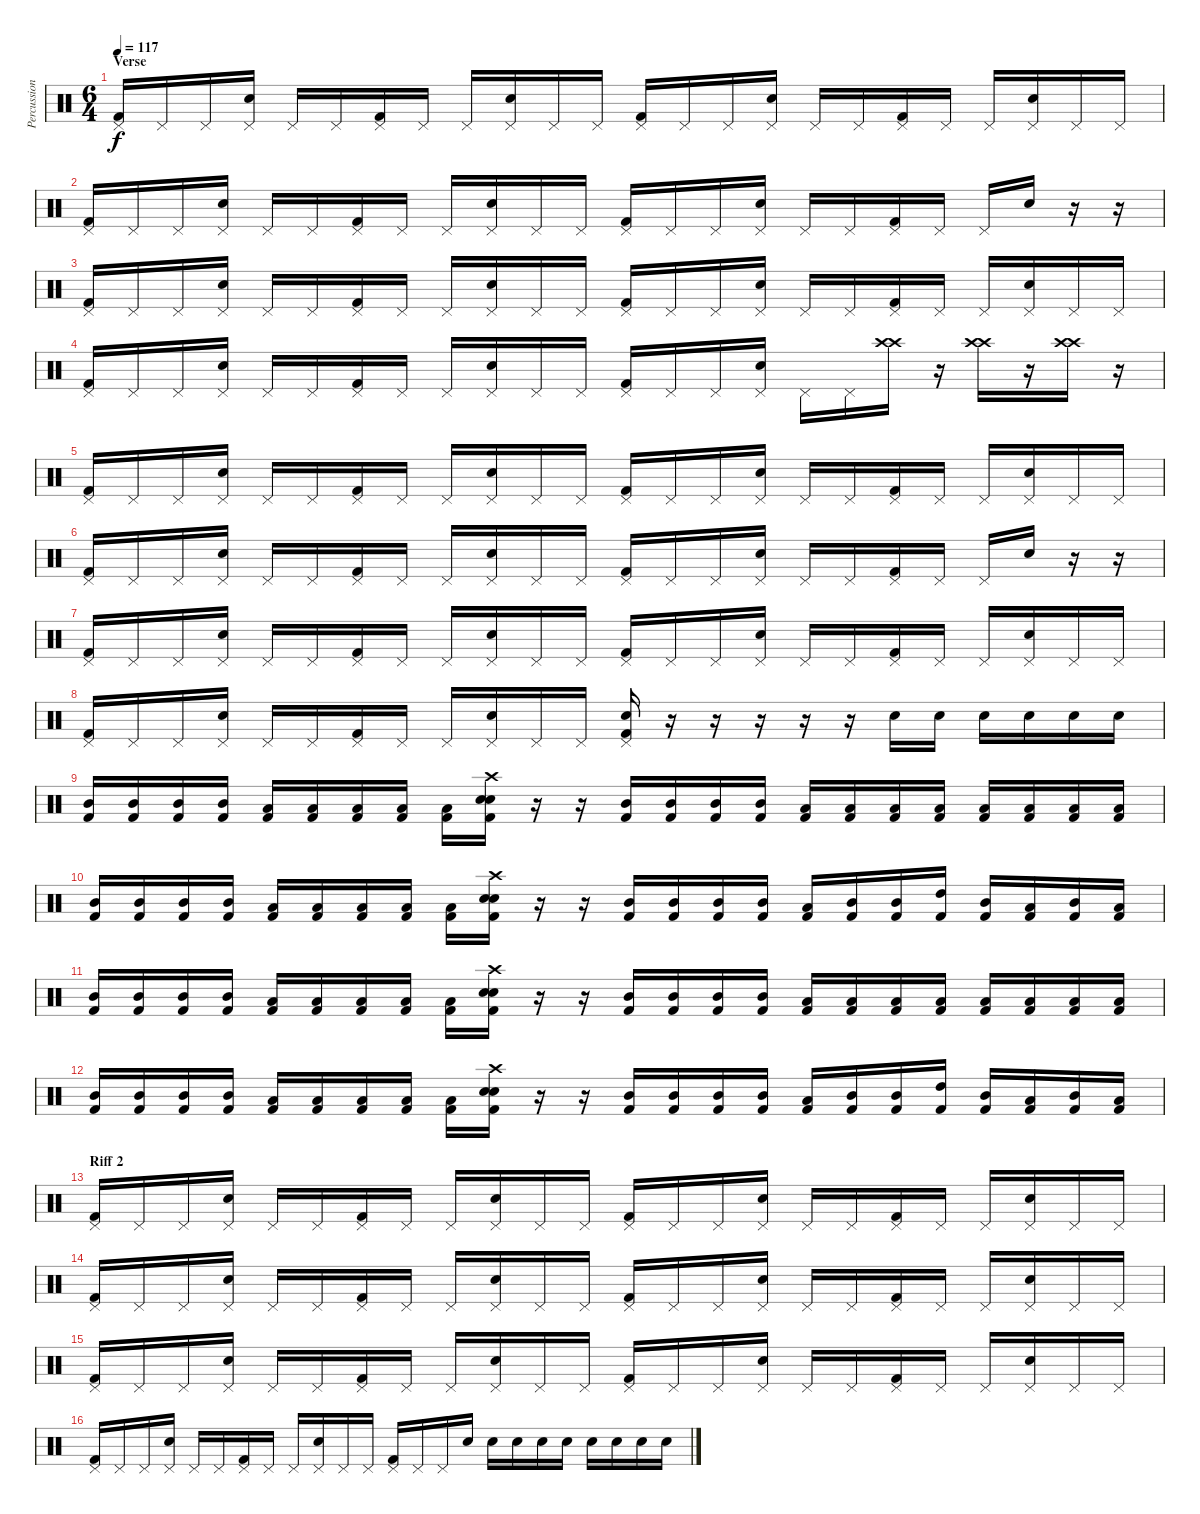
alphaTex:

\track ("Percussions" "Percussion") {instrument percussion}
\staff {score}
\articulation defaults
\ts (6 4)
\section ("" "Verse")
\tempo 117
\clef neutral
\ks c
("Pedal Hi-Hat (hit)" "Kick (hit) 2").16{dy f} "Pedal Hi-Hat (hit)".16 "Pedal Hi-Hat (hit)".16 ("Pedal Hi-Hat (hit)" "Electric Snare (hit)").16 "Pedal Hi-Hat (hit)".16 "Pedal Hi-Hat (hit)".16 ("Pedal Hi-Hat (hit)" "Kick (hit) 2").16 "Pedal Hi-Hat (hit)".16 "Pedal Hi-Hat (hit)".16 ("Pedal Hi-Hat (hit)" "Electric Snare (hit)").16 "Pedal Hi-Hat (hit)".16 "Pedal Hi-Hat (hit)".16 ("Pedal Hi-Hat (hit)" "Kick (hit) 2").16 "Pedal Hi-Hat (hit)".16 "Pedal Hi-Hat (hit)".16 ("Pedal Hi-Hat (hit)" "Electric Snare (hit)").16 "Pedal Hi-Hat (hit)".16 "Pedal Hi-Hat (hit)".16 ("Pedal Hi-Hat (hit)" "Kick (hit) 2").16 "Pedal Hi-Hat (hit)".16 "Pedal Hi-Hat (hit)".16 ("Pedal Hi-Hat (hit)" "Electric Snare (hit)").16 "Pedal Hi-Hat (hit)".16 "Pedal Hi-Hat (hit)".16 |
("Pedal Hi-Hat (hit)" "Kick (hit) 2").16 "Pedal Hi-Hat (hit)".16 "Pedal Hi-Hat (hit)".16 ("Pedal Hi-Hat (hit)" "Electric Snare (hit)").16 "Pedal Hi-Hat (hit)".16 "Pedal Hi-Hat (hit)".16 ("Pedal Hi-Hat (hit)" "Kick (hit) 2").16 "Pedal Hi-Hat (hit)".16 "Pedal Hi-Hat (hit)".16 ("Pedal Hi-Hat (hit)" "Electric Snare (hit)").16 "Pedal Hi-Hat (hit)".16 "Pedal Hi-Hat (hit)".16 ("Pedal Hi-Hat (hit)" "Kick (hit) 2").16 "Pedal Hi-Hat (hit)".16 "Pedal Hi-Hat (hit)".16 ("Pedal Hi-Hat (hit)" "Electric Snare (hit)").16 "Pedal Hi-Hat (hit)".16 "Pedal Hi-Hat (hit)".16 ("Pedal Hi-Hat (hit)" "Kick (hit) 2").16 "Pedal Hi-Hat (hit)".16 "Pedal Hi-Hat (hit)".16 "Electric Snare (hit)".16 r.16 r.16 |
("Pedal Hi-Hat (hit)" "Kick (hit) 2").16 "Pedal Hi-Hat (hit)".16 "Pedal Hi-Hat (hit)".16 ("Pedal Hi-Hat (hit)" "Electric Snare (hit)").16 "Pedal Hi-Hat (hit)".16 "Pedal Hi-Hat (hit)".16 ("Pedal Hi-Hat (hit)" "Kick (hit) 2").16 "Pedal Hi-Hat (hit)".16 "Pedal Hi-Hat (hit)".16 ("Pedal Hi-Hat (hit)" "Electric Snare (hit)").16 "Pedal Hi-Hat (hit)".16 "Pedal Hi-Hat (hit)".16 ("Pedal Hi-Hat (hit)" "Kick (hit) 2").16 "Pedal Hi-Hat (hit)".16 "Pedal Hi-Hat (hit)".16 ("Pedal Hi-Hat (hit)" "Electric Snare (hit)").16 "Pedal Hi-Hat (hit)".16 "Pedal Hi-Hat (hit)".16 ("Pedal Hi-Hat (hit)" "Kick (hit) 2").16 "Pedal Hi-Hat (hit)".16 "Pedal Hi-Hat (hit)".16 ("Pedal Hi-Hat (hit)" "Electric Snare (hit)").16 "Pedal Hi-Hat (hit)".16 "Pedal Hi-Hat (hit)".16 |
("Pedal Hi-Hat (hit)" "Kick (hit) 2").16 "Pedal Hi-Hat (hit)".16 "Pedal Hi-Hat (hit)".16 ("Pedal Hi-Hat (hit)" "Electric Snare (hit)").16 "Pedal Hi-Hat (hit)".16 "Pedal Hi-Hat (hit)".16 ("Pedal Hi-Hat (hit)" "Kick (hit) 2").16 "Pedal Hi-Hat (hit)".16 "Pedal Hi-Hat (hit)".16 ("Pedal Hi-Hat (hit)" "Electric Snare (hit)").16 "Pedal Hi-Hat (hit)".16 "Pedal Hi-Hat (hit)".16 ("Pedal Hi-Hat (hit)" "Kick (hit) 2").16 "Pedal Hi-Hat (hit)".16 "Pedal Hi-Hat (hit)".16 ("Pedal Hi-Hat (hit)" "Electric Snare (hit)").16 "Pedal Hi-Hat (hit)".16 "Pedal Hi-Hat (hit)".16 ("Crash high (hit)" "Crash high (hit)").16 r.16 ("Crash high (hit)" "Crash high (hit)").16 r.16 ("Crash high (hit)" "Crash high (hit)").16 r.16 |
("Pedal Hi-Hat (hit)" "Kick (hit) 2").16 "Pedal Hi-Hat (hit)".16 "Pedal Hi-Hat (hit)".16 ("Pedal Hi-Hat (hit)" "Electric Snare (hit)").16 "Pedal Hi-Hat (hit)".16 "Pedal Hi-Hat (hit)".16 ("Pedal Hi-Hat (hit)" "Kick (hit) 2").16 "Pedal Hi-Hat (hit)".16 "Pedal Hi-Hat (hit)".16 ("Pedal Hi-Hat (hit)" "Electric Snare (hit)").16 "Pedal Hi-Hat (hit)".16 "Pedal Hi-Hat (hit)".16 ("Pedal Hi-Hat (hit)" "Kick (hit) 2").16 "Pedal Hi-Hat (hit)".16 "Pedal Hi-Hat (hit)".16 ("Pedal Hi-Hat (hit)" "Electric Snare (hit)").16 "Pedal Hi-Hat (hit)".16 "Pedal Hi-Hat (hit)".16 ("Pedal Hi-Hat (hit)" "Kick (hit) 2").16 "Pedal Hi-Hat (hit)".16 "Pedal Hi-Hat (hit)".16 ("Pedal Hi-Hat (hit)" "Electric Snare (hit)").16 "Pedal Hi-Hat (hit)".16 "Pedal Hi-Hat (hit)".16 |
("Pedal Hi-Hat (hit)" "Kick (hit) 2").16 "Pedal Hi-Hat (hit)".16 "Pedal Hi-Hat (hit)".16 ("Pedal Hi-Hat (hit)" "Electric Snare (hit)").16 "Pedal Hi-Hat (hit)".16 "Pedal Hi-Hat (hit)".16 ("Pedal Hi-Hat (hit)" "Kick (hit) 2").16 "Pedal Hi-Hat (hit)".16 "Pedal Hi-Hat (hit)".16 ("Pedal Hi-Hat (hit)" "Electric Snare (hit)").16 "Pedal Hi-Hat (hit)".16 "Pedal Hi-Hat (hit)".16 ("Pedal Hi-Hat (hit)" "Kick (hit) 2").16 "Pedal Hi-Hat (hit)".16 "Pedal Hi-Hat (hit)".16 ("Pedal Hi-Hat (hit)" "Electric Snare (hit)").16 "Pedal Hi-Hat (hit)".16 "Pedal Hi-Hat (hit)".16 ("Pedal Hi-Hat (hit)" "Kick (hit) 2").16 "Pedal Hi-Hat (hit)".16 "Pedal Hi-Hat (hit)".16 "Electric Snare (hit)".16 r.16 r.16 |
("Pedal Hi-Hat (hit)" "Kick (hit) 2").16 "Pedal Hi-Hat (hit)".16 "Pedal Hi-Hat (hit)".16 ("Pedal Hi-Hat (hit)" "Electric Snare (hit)").16 "Pedal Hi-Hat (hit)".16 "Pedal Hi-Hat (hit)".16 ("Pedal Hi-Hat (hit)" "Kick (hit) 2").16 "Pedal Hi-Hat (hit)".16 "Pedal Hi-Hat (hit)".16 ("Pedal Hi-Hat (hit)" "Electric Snare (hit)").16 "Pedal Hi-Hat (hit)".16 "Pedal Hi-Hat (hit)".16 ("Pedal Hi-Hat (hit)" "Kick (hit) 2").16 "Pedal Hi-Hat (hit)".16 "Pedal Hi-Hat (hit)".16 ("Pedal Hi-Hat (hit)" "Electric Snare (hit)").16 "Pedal Hi-Hat (hit)".16 "Pedal Hi-Hat (hit)".16 ("Pedal Hi-Hat (hit)" "Kick (hit) 2").16 "Pedal Hi-Hat (hit)".16 "Pedal Hi-Hat (hit)".16 ("Pedal Hi-Hat (hit)" "Electric Snare (hit)").16 "Pedal Hi-Hat (hit)".16 "Pedal Hi-Hat (hit)".16 |
("Pedal Hi-Hat (hit)" "Kick (hit) 2").16 "Pedal Hi-Hat (hit)".16 "Pedal Hi-Hat (hit)".16 ("Pedal Hi-Hat (hit)" "Electric Snare (hit)").16 "Pedal Hi-Hat (hit)".16 "Pedal Hi-Hat (hit)".16 ("Pedal Hi-Hat (hit)" "Kick (hit) 2").16 "Pedal Hi-Hat (hit)".16 "Pedal Hi-Hat (hit)".16 ("Pedal Hi-Hat (hit)" "Electric Snare (hit)").16 "Pedal Hi-Hat (hit)".16 "Pedal Hi-Hat (hit)".16 ("Pedal Hi-Hat (hit)" "Electric Snare (hit)" "Kick (hit) 2").16 r.16 r.16 r.16 r.16 r.16 "Electric Snare (hit)".16 "Electric Snare (hit)".16 "Electric Snare (hit)".16 "Electric Snare (hit)".16 "Electric Snare (hit)".16 "Electric Snare (hit)".16 |
("Mid Tom (hit)" "Kick (hit) 2").16 ("Mid Tom (hit)" "Kick (hit) 2").16 ("Mid Tom (hit)" "Kick (hit) 2").16 ("Mid Tom (hit)" "Kick (hit) 2").16 ("Low Tom (hit)" "Kick (hit) 2").16 ("Low Tom (hit)" "Kick (hit) 2").16 ("Low Tom (hit)" "Kick (hit) 2").16 ("Low Floor Tom (hit)" "Kick (hit) 2").16 ("Low Floor Tom (hit)" "Kick (hit) 2").16 ("Crash high (hit)" "Electric Snare (hit)" "Electric Snare (hit)" "Kick (hit) 2").16 r.16 r.16 ("Mid Tom (hit)" "Kick (hit) 2").16 ("Mid Tom (hit)" "Kick (hit) 2").16 ("Mid Tom (hit)" "Kick (hit) 2").16 ("Mid Tom (hit)" "Kick (hit) 2").16 ("Low Tom (hit)" "Kick (hit) 2").16 ("Low Tom (hit)" "Kick (hit) 2").16 ("Low Tom (hit)" "Kick (hit) 2").16 ("Low Floor Tom (hit)" "Kick (hit) 2").16 ("Low Floor Tom (hit)" "Kick (hit) 2").16 ("Low Floor Tom (hit)" "Kick (hit) 2").16 ("Low Floor Tom (hit)" "Kick (hit) 2").16 ("Low Floor Tom (hit)" "Kick (hit) 2").16 |
("Mid Tom (hit)" "Kick (hit) 2").16 ("Mid Tom (hit)" "Kick (hit) 2").16 ("Mid Tom (hit)" "Kick (hit) 2").16 ("Mid Tom (hit)" "Kick (hit) 2").16 ("Low Tom (hit)" "Kick (hit) 2").16 ("Low Tom (hit)" "Kick (hit) 2").16 ("Low Tom (hit)" "Kick (hit) 2").16 ("Low Floor Tom (hit)" "Kick (hit) 2").16 ("Low Floor Tom (hit)" "Kick (hit) 2").16 ("Crash high (hit)" "Electric Snare (hit)" "Electric Snare (hit)" "Kick (hit) 2").16 r.16 r.16 ("Mid Tom (hit)" "Kick (hit) 2").16 ("Mid Tom (hit)" "Kick (hit) 2").16 ("Mid Tom (hit)" "Kick (hit) 2").16 ("Mid Tom (hit)" "Kick (hit) 2").16 ("Low Tom (hit)" "Kick (hit) 2").16 ("Mid Tom (hit)" "Kick (hit) 2").16 ("Mid Tom (hit)" "Kick (hit) 2").16 ("High Tom (hit)" "Kick (hit) 2").16 ("Mid Tom (hit)" "Kick (hit) 2").16 ("Low Tom (hit)" "Kick (hit) 2").16 ("Mid Tom (hit)" "Kick (hit) 2").16 ("Low Tom (hit)" "Kick (hit) 2").16 |
("Mid Tom (hit)" "Kick (hit) 2").16 ("Mid Tom (hit)" "Kick (hit) 2").16 ("Mid Tom (hit)" "Kick (hit) 2").16 ("Mid Tom (hit)" "Kick (hit) 2").16 ("Low Tom (hit)" "Kick (hit) 2").16 ("Low Tom (hit)" "Kick (hit) 2").16 ("Low Tom (hit)" "Kick (hit) 2").16 ("Low Floor Tom (hit)" "Kick (hit) 2").16 ("Low Floor Tom (hit)" "Kick (hit) 2").16 ("Crash high (hit)" "Electric Snare (hit)" "Electric Snare (hit)" "Kick (hit) 2").16 r.16 r.16 ("Mid Tom (hit)" "Kick (hit) 2").16 ("Mid Tom (hit)" "Kick (hit) 2").16 ("Mid Tom (hit)" "Kick (hit) 2").16 ("Mid Tom (hit)" "Kick (hit) 2").16 ("Low Tom (hit)" "Kick (hit) 2").16 ("Low Tom (hit)" "Kick (hit) 2").16 ("Low Tom (hit)" "Kick (hit) 2").16 ("Low Floor Tom (hit)" "Kick (hit) 2").16 ("Low Floor Tom (hit)" "Kick (hit) 2").16 ("Low Floor Tom (hit)" "Kick (hit) 2").16 ("Low Floor Tom (hit)" "Kick (hit) 2").16 ("Low Floor Tom (hit)" "Kick (hit) 2").16 |
("Mid Tom (hit)" "Kick (hit) 2").16 ("Mid Tom (hit)" "Kick (hit) 2").16 ("Mid Tom (hit)" "Kick (hit) 2").16 ("Mid Tom (hit)" "Kick (hit) 2").16 ("Low Tom (hit)" "Kick (hit) 2").16 ("Low Tom (hit)" "Kick (hit) 2").16 ("Low Tom (hit)" "Kick (hit) 2").16 ("Low Floor Tom (hit)" "Kick (hit) 2").16 ("Low Floor Tom (hit)" "Kick (hit) 2").16 ("Crash high (hit)" "Electric Snare (hit)" "Electric Snare (hit)" "Kick (hit) 2").16 r.16 r.16 ("Mid Tom (hit)" "Kick (hit) 2").16 ("Mid Tom (hit)" "Kick (hit) 2").16 ("Mid Tom (hit)" "Kick (hit) 2").16 ("Mid Tom (hit)" "Kick (hit) 2").16 ("Low Tom (hit)" "Kick (hit) 2").16 ("Mid Tom (hit)" "Kick (hit) 2").16 ("Mid Tom (hit)" "Kick (hit) 2").16 ("High Tom (hit)" "Kick (hit) 2").16 ("Mid Tom (hit)" "Kick (hit) 2").16 ("Low Tom (hit)" "Kick (hit) 2").16 ("Mid Tom (hit)" "Kick (hit) 2").16 ("Low Tom (hit)" "Kick (hit) 2").16 |
\section ("" "Riff 2")
("Pedal Hi-Hat (hit)" "Kick (hit) 2").16 "Pedal Hi-Hat (hit)".16 "Pedal Hi-Hat (hit)".16 ("Pedal Hi-Hat (hit)" "Electric Snare (hit)").16 "Pedal Hi-Hat (hit)".16 "Pedal Hi-Hat (hit)".16 ("Pedal Hi-Hat (hit)" "Kick (hit) 2").16 "Pedal Hi-Hat (hit)".16 "Pedal Hi-Hat (hit)".16 ("Pedal Hi-Hat (hit)" "Electric Snare (hit)").16 "Pedal Hi-Hat (hit)".16 "Pedal Hi-Hat (hit)".16 ("Pedal Hi-Hat (hit)" "Kick (hit) 2").16 "Pedal Hi-Hat (hit)".16 "Pedal Hi-Hat (hit)".16 ("Pedal Hi-Hat (hit)" "Electric Snare (hit)").16 "Pedal Hi-Hat (hit)".16 "Pedal Hi-Hat (hit)".16 ("Pedal Hi-Hat (hit)" "Kick (hit) 2").16 "Pedal Hi-Hat (hit)".16 "Pedal Hi-Hat (hit)".16 ("Pedal Hi-Hat (hit)" "Electric Snare (hit)").16 "Pedal Hi-Hat (hit)".16 "Pedal Hi-Hat (hit)".16 |
("Pedal Hi-Hat (hit)" "Kick (hit) 2").16 "Pedal Hi-Hat (hit)".16 "Pedal Hi-Hat (hit)".16 ("Pedal Hi-Hat (hit)" "Electric Snare (hit)").16 "Pedal Hi-Hat (hit)".16 "Pedal Hi-Hat (hit)".16 ("Pedal Hi-Hat (hit)" "Kick (hit) 2").16 "Pedal Hi-Hat (hit)".16 "Pedal Hi-Hat (hit)".16 ("Pedal Hi-Hat (hit)" "Electric Snare (hit)").16 "Pedal Hi-Hat (hit)".16 "Pedal Hi-Hat (hit)".16 ("Pedal Hi-Hat (hit)" "Kick (hit) 2").16 "Pedal Hi-Hat (hit)".16 "Pedal Hi-Hat (hit)".16 ("Pedal Hi-Hat (hit)" "Electric Snare (hit)").16 "Pedal Hi-Hat (hit)".16 "Pedal Hi-Hat (hit)".16 ("Pedal Hi-Hat (hit)" "Kick (hit) 2").16 "Pedal Hi-Hat (hit)".16 "Pedal Hi-Hat (hit)".16 ("Pedal Hi-Hat (hit)" "Electric Snare (hit)").16 "Pedal Hi-Hat (hit)".16 "Pedal Hi-Hat (hit)".16 |
("Pedal Hi-Hat (hit)" "Kick (hit) 2").16 "Pedal Hi-Hat (hit)".16 "Pedal Hi-Hat (hit)".16 ("Pedal Hi-Hat (hit)" "Electric Snare (hit)").16 "Pedal Hi-Hat (hit)".16 "Pedal Hi-Hat (hit)".16 ("Pedal Hi-Hat (hit)" "Kick (hit) 2").16 "Pedal Hi-Hat (hit)".16 "Pedal Hi-Hat (hit)".16 ("Pedal Hi-Hat (hit)" "Electric Snare (hit)").16 "Pedal Hi-Hat (hit)".16 "Pedal Hi-Hat (hit)".16 ("Pedal Hi-Hat (hit)" "Kick (hit) 2").16 "Pedal Hi-Hat (hit)".16 "Pedal Hi-Hat (hit)".16 ("Pedal Hi-Hat (hit)" "Electric Snare (hit)").16 "Pedal Hi-Hat (hit)".16 "Pedal Hi-Hat (hit)".16 ("Pedal Hi-Hat (hit)" "Kick (hit) 2").16 "Pedal Hi-Hat (hit)".16 "Pedal Hi-Hat (hit)".16 ("Pedal Hi-Hat (hit)" "Electric Snare (hit)").16 "Pedal Hi-Hat (hit)".16 "Pedal Hi-Hat (hit)".16 |
("Pedal Hi-Hat (hit)" "Kick (hit) 2").16 "Pedal Hi-Hat (hit)".16 "Pedal Hi-Hat (hit)".16 ("Pedal Hi-Hat (hit)" "Electric Snare (hit)").16 "Pedal Hi-Hat (hit)".16 "Pedal Hi-Hat (hit)".16 ("Pedal Hi-Hat (hit)" "Kick (hit) 2").16 "Pedal Hi-Hat (hit)".16 "Pedal Hi-Hat (hit)".16 ("Pedal Hi-Hat (hit)" "Electric Snare (hit)").16 "Pedal Hi-Hat (hit)".16 "Pedal Hi-Hat (hit)".16 ("Pedal Hi-Hat (hit)" "Kick (hit) 2").16 "Pedal Hi-Hat (hit)".16 "Pedal Hi-Hat (hit)".16 "Electric Snare (hit)".16 "Electric Snare (hit)".16 "Electric Snare (hit)".16 "Electric Snare (hit)".16 "Electric Snare (hit)".16 "Electric Snare (hit)".16 "Electric Snare (hit)".16 "Electric Snare (hit)".16 "Electric Snare (hit)".16
